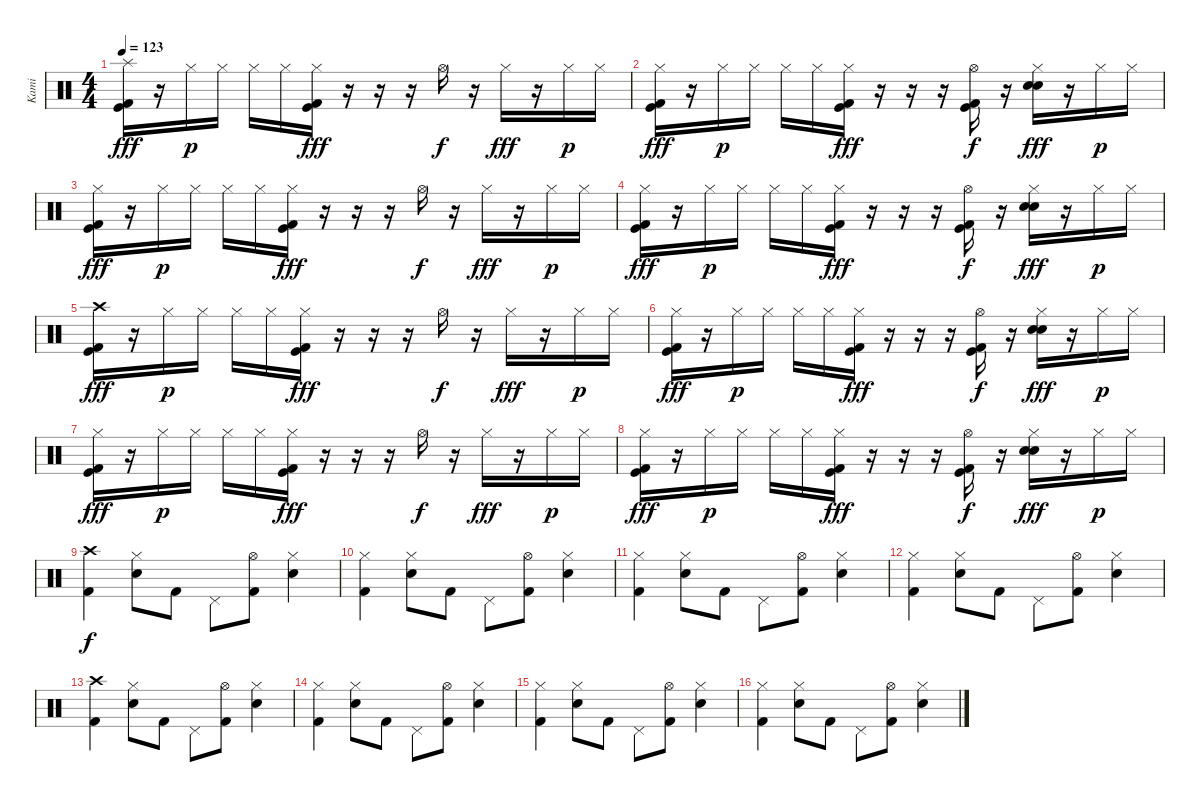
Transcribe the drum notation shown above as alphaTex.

\track ("Kami" "Kami") {instrument percussion}
\staff {score}
\articulation defaults
\ts (4 4)
\tempo 123
\clef neutral
\ks c
("Kick (hit) 2" "Kick (hit)" "Splash (hit)").16{dy fff} r.16 "Hi-Hat (closed)".16{dy p} "Hi-Hat (closed)".16 "Hi-Hat (closed)".16 "Hi-Hat (closed)".16 ("Kick (hit) 2" "Kick (hit)" "Hi-Hat (closed)").16{dy fff} r.16 r.16 r.16 "Hi-Hat (open)".16{dy f} r.16 "Hi-Hat (closed)".16{dy fff} r.16 "Hi-Hat (closed)".16{dy p} "Hi-Hat (closed)".16 |
("Kick (hit) 2" "Kick (hit)" "Hi-Hat (closed)").16{dy fff} r.16 "Hi-Hat (closed)".16{dy p} "Hi-Hat (closed)".16 "Hi-Hat (closed)".16 "Hi-Hat (closed)".16 ("Kick (hit) 2" "Kick (hit)" "Hi-Hat (closed)").16{dy fff} r.16 r.16 r.16 ("Kick (hit) 2" "Kick (hit)" "Hi-Hat (open)").16{dy f} r.16 ("Snare (hit) 2" "Electric Snare (hit)" "Hi-Hat (closed)").16{dy fff} r.16 "Hi-Hat (closed)".16{dy p} "Hi-Hat (closed)".16 |
("Kick (hit) 2" "Kick (hit)" "Hi-Hat (closed)").16{dy fff} r.16 "Hi-Hat (closed)".16{dy p} "Hi-Hat (closed)".16 "Hi-Hat (closed)".16 "Hi-Hat (closed)".16 ("Kick (hit) 2" "Kick (hit)" "Hi-Hat (closed)").16{dy fff} r.16 r.16 r.16 "Hi-Hat (open)".16{dy f} r.16 "Hi-Hat (closed)".16{dy fff} r.16 "Hi-Hat (closed)".16{dy p} "Hi-Hat (closed)".16 |
("Kick (hit) 2" "Kick (hit)" "Hi-Hat (closed)").16{dy fff} r.16 "Hi-Hat (closed)".16{dy p} "Hi-Hat (closed)".16 "Hi-Hat (closed)".16 "Hi-Hat (closed)".16 ("Kick (hit) 2" "Kick (hit)" "Hi-Hat (closed)").16{dy fff} r.16 r.16 r.16 ("Kick (hit) 2" "Kick (hit)" "Hi-Hat (open)").16{dy f} r.16 ("Snare (hit) 2" "Electric Snare (hit)" "Hi-Hat (closed)").16{dy fff} r.16 "Hi-Hat (closed)".16{dy p} "Hi-Hat (closed)".16 |
("Kick (hit) 2" "Kick (hit)" "Crash high (hit)").16{dy fff} r.16 "Hi-Hat (closed)".16{dy p} "Hi-Hat (closed)".16 "Hi-Hat (closed)".16 "Hi-Hat (closed)".16 ("Kick (hit) 2" "Kick (hit)" "Hi-Hat (closed)").16{dy fff} r.16 r.16 r.16 "Hi-Hat (open)".16{dy f} r.16 "Hi-Hat (closed)".16{dy fff} r.16 "Hi-Hat (closed)".16{dy p} "Hi-Hat (closed)".16 |
("Kick (hit) 2" "Kick (hit)" "Hi-Hat (closed)").16{dy fff} r.16 "Hi-Hat (closed)".16{dy p} "Hi-Hat (closed)".16 "Hi-Hat (closed)".16 "Hi-Hat (closed)".16 ("Kick (hit) 2" "Kick (hit)" "Hi-Hat (closed)").16{dy fff} r.16 r.16 r.16 ("Kick (hit) 2" "Kick (hit)" "Hi-Hat (open)").16{dy f} r.16 ("Snare (hit) 2" "Electric Snare (hit)" "Hi-Hat (closed)").16{dy fff} r.16 "Hi-Hat (closed)".16{dy p} "Hi-Hat (closed)".16 |
("Kick (hit) 2" "Kick (hit)" "Hi-Hat (closed)").16{dy fff} r.16 "Hi-Hat (closed)".16{dy p} "Hi-Hat (closed)".16 "Hi-Hat (closed)".16 "Hi-Hat (closed)".16 ("Kick (hit) 2" "Kick (hit)" "Hi-Hat (closed)").16{dy fff} r.16 r.16 r.16 "Hi-Hat (open)".16{dy f} r.16 "Hi-Hat (closed)".16{dy fff} r.16 "Hi-Hat (closed)".16{dy p} "Hi-Hat (closed)".16 |
("Kick (hit) 2" "Kick (hit)" "Hi-Hat (closed)").16{dy fff} r.16 "Hi-Hat (closed)".16{dy p} "Hi-Hat (closed)".16 "Hi-Hat (closed)".16 "Hi-Hat (closed)".16 ("Kick (hit) 2" "Kick (hit)" "Hi-Hat (closed)").16{dy fff} r.16 r.16 r.16 ("Kick (hit) 2" "Kick (hit)" "Hi-Hat (open)").16{dy f} r.16 ("Snare (hit) 2" "Electric Snare (hit)" "Hi-Hat (closed)").16{dy fff} r.16 "Hi-Hat (closed)".16{dy p} "Hi-Hat (closed)".16 |
("Kick (hit) 2" "Crash high (hit)").4{dy f} ("Electric Snare (hit)" "Hi-Hat (closed)").8 "Kick (hit) 2".8 "Pedal Hi-Hat (hit)".8 ("Kick (hit) 2" "Hi-Hat (open)").8 ("Electric Snare (hit)" "Hi-Hat (closed)").4 |
("Kick (hit) 2" "Hi-Hat (closed)").4 ("Electric Snare (hit)" "Hi-Hat (closed)").8 "Kick (hit) 2".8 "Pedal Hi-Hat (hit)".8 ("Kick (hit) 2" "Hi-Hat (open)").8 ("Electric Snare (hit)" "Hi-Hat (closed)").4 |
("Kick (hit) 2" "Hi-Hat (closed)").4 ("Electric Snare (hit)" "Hi-Hat (closed)").8 "Kick (hit) 2".8 "Pedal Hi-Hat (hit)".8 ("Kick (hit) 2" "Hi-Hat (open)").8 ("Electric Snare (hit)" "Hi-Hat (closed)").4 |
("Kick (hit) 2" "Hi-Hat (closed)").4 ("Electric Snare (hit)" "Hi-Hat (closed)").8 "Kick (hit) 2".8 "Pedal Hi-Hat (hit)".8 ("Kick (hit) 2" "Hi-Hat (open)").8 ("Electric Snare (hit)" "Hi-Hat (closed)").4 |
("Kick (hit) 2" "Crash high (hit)").4 ("Electric Snare (hit)" "Hi-Hat (closed)").8 "Kick (hit) 2".8 "Pedal Hi-Hat (hit)".8 ("Kick (hit) 2" "Hi-Hat (open)").8 ("Electric Snare (hit)" "Hi-Hat (closed)").4 |
("Kick (hit) 2" "Hi-Hat (closed)").4 ("Electric Snare (hit)" "Hi-Hat (closed)").8 "Kick (hit) 2".8 "Pedal Hi-Hat (hit)".8 ("Kick (hit) 2" "Hi-Hat (open)").8 ("Electric Snare (hit)" "Hi-Hat (closed)").4 |
("Kick (hit) 2" "Hi-Hat (closed)").4 ("Electric Snare (hit)" "Hi-Hat (closed)").8 "Kick (hit) 2".8 "Pedal Hi-Hat (hit)".8 ("Kick (hit) 2" "Hi-Hat (open)").8 ("Electric Snare (hit)" "Hi-Hat (closed)").4 |
("Kick (hit) 2" "Hi-Hat (closed)").4 ("Electric Snare (hit)" "Hi-Hat (closed)").8 "Kick (hit) 2".8 "Pedal Hi-Hat (hit)".8 ("Kick (hit) 2" "Hi-Hat (open)").8 ("Electric Snare (hit)" "Hi-Hat (closed)").4
